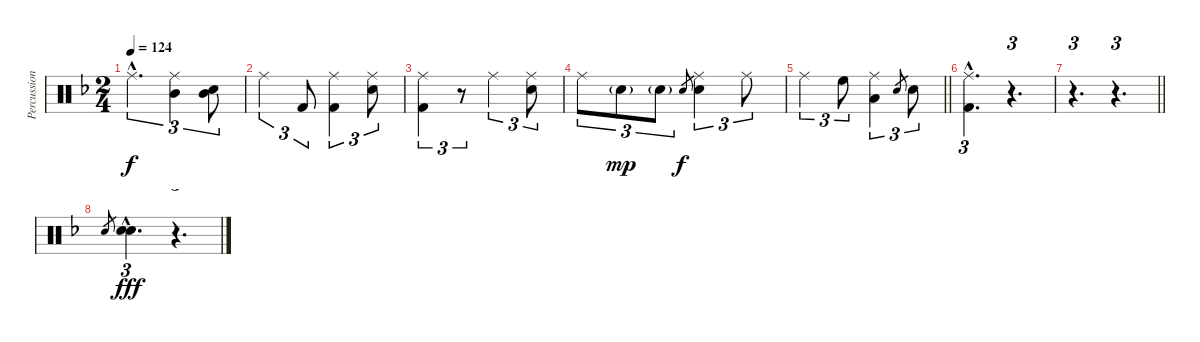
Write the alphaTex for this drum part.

\track ("Percussions" "Percussion") {instrument percussion}
\staff {score}
\articulation defaults
\ts (2 4)
\tempo 124
\clef neutral
\ks dminor "Ride (middle)"{hac}.4{d tu (3 2) dy f}
("Ride (middle)" "Mid Tom (hit)").4{tu (3 2)} ("Mid Tom (hit)" "Snare (hit) 2").8{tu (3 2)} |
"Ride (middle)".4{tu (3 2)} "Kick (hit) 2".8{tu (3 2)} ("Ride (middle)" "Kick (hit) 2").4{tu (3 2)} ("Ride (middle)" "Snare (hit) 2").8{tu (3 2)} |
("Ride (middle)" "Kick (hit) 2").4{tu (3 2)} r.8{tu (3 2)} "Ride (middle)".4{tu (3 2)} ("Ride (middle)" "Snare (hit) 2").8{tu (3 2)} |
"Ride (middle)".8{tu (3 2)} "Snare (hit) 2"{g}.8{tu (3 2) dy mp} "Snare (hit) 2"{g}.8{tu (3 2)} "Snare (hit) 2".8{gr dy f} ("Ride (middle)" "Snare (hit) 2").4{tu (3 2)} "Ride (middle)".8{tu (3 2)} |
\barLineRight lightlight "Ride (middle)".4{tu (3 2)} "High Floor Tom (hit)".8{tu (3 2)}
("Ride (middle)" "Low Tom (hit)").4{tu (3 2)} "Snare (hit) 2".8{gr} "Snare (hit) 2".8{tu (3 2)} |
("Ride (middle)"{hac} "Kick (hit) 2"{hac}).4{d tu (3 2)} r.4{d tu (3 2)} |
\barLineRight lightlight
r.4{d tu (3 2)} r.4{d tu (3 2)} |
"Snare (hit) 2".8{gr} ("Snare (hit) 2"{hac} "Electric Snare (hit)"{hac}).4{d tu (3 2) dy fff} r.4{d tu (3 2)}
